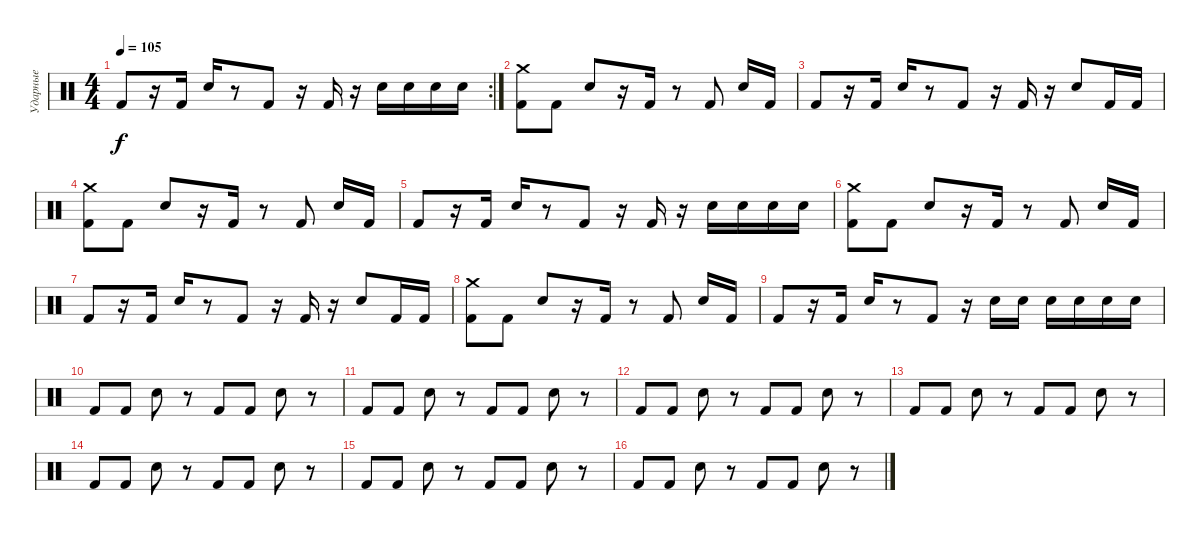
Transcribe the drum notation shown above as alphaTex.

\track ("Ударные" "Ударные") {instrument percussion}
\staff {score}
\articulation defaults
\rc 2
\ts (4 4)
\tempo 105
\clef neutral
\ks c "Kick (hit) 2".8{dy f}
r.16 "Kick (hit) 2".16 "Electric Snare (hit)".16 r.8 "Kick (hit) 2".8 r.16 "Kick (hit) 2".16 r.16 "Electric Snare (hit)".16 "Electric Snare (hit)".16 "Electric Snare (hit)".16 "Electric Snare (hit)".16 |
("Crash medium (hit)" "Kick (hit) 2").8 "Kick (hit) 2".8 "Electric Snare (hit)".8 r.16 "Kick (hit) 2".16 r.8 "Kick (hit) 2".8 "Electric Snare (hit)".16 "Kick (hit) 2".16 |
"Kick (hit) 2".8 r.16 "Kick (hit) 2".16 "Electric Snare (hit)".16 r.8 "Kick (hit) 2".8 r.16 "Kick (hit) 2".16 r.16 "Electric Snare (hit)".8 "Kick (hit) 2".16 "Kick (hit) 2".16 |
("Crash medium (hit)" "Kick (hit) 2").8 "Kick (hit) 2".8 "Electric Snare (hit)".8 r.16 "Kick (hit) 2".16 r.8 "Kick (hit) 2".8 "Electric Snare (hit)".16 "Kick (hit) 2".16 |
"Kick (hit) 2".8 r.16 "Kick (hit) 2".16 "Electric Snare (hit)".16 r.8 "Kick (hit) 2".8 r.16 "Kick (hit) 2".16 r.16 "Electric Snare (hit)".16 "Electric Snare (hit)".16 "Electric Snare (hit)".16 "Electric Snare (hit)".16 |
("Crash medium (hit)" "Kick (hit) 2").8 "Kick (hit) 2".8 "Electric Snare (hit)".8 r.16 "Kick (hit) 2".16 r.8 "Kick (hit) 2".8 "Electric Snare (hit)".16 "Kick (hit) 2".16 |
"Kick (hit) 2".8 r.16 "Kick (hit) 2".16 "Electric Snare (hit)".16 r.8 "Kick (hit) 2".8 r.16 "Kick (hit) 2".16 r.16 "Electric Snare (hit)".8 "Kick (hit) 2".16 "Kick (hit) 2".16 |
("Crash medium (hit)" "Kick (hit) 2").8 "Kick (hit) 2".8 "Electric Snare (hit)".8 r.16 "Kick (hit) 2".16 r.8 "Kick (hit) 2".8 "Electric Snare (hit)".16 "Kick (hit) 2".16 |
"Kick (hit) 2".8 r.16 "Kick (hit) 2".16 "Electric Snare (hit)".16 r.8 "Kick (hit) 2".8 r.16 "Electric Snare (hit)".16 "Electric Snare (hit)".16 "Electric Snare (hit)".16 "Electric Snare (hit)".16 "Electric Snare (hit)".16 "Electric Snare (hit)".16 |
"Kick (hit) 2".8 "Kick (hit) 2".8 "Electric Snare (hit)".8 r.8 "Kick (hit) 2".8 "Kick (hit) 2".8 "Electric Snare (hit)".8 r.8 |
"Kick (hit) 2".8 "Kick (hit) 2".8 "Electric Snare (hit)".8 r.8 "Kick (hit) 2".8 "Kick (hit) 2".8 "Electric Snare (hit)".8 r.8 |
"Kick (hit) 2".8 "Kick (hit) 2".8 "Electric Snare (hit)".8 r.8 "Kick (hit) 2".8 "Kick (hit) 2".8 "Electric Snare (hit)".8 r.8 |
"Kick (hit) 2".8 "Kick (hit) 2".8 "Electric Snare (hit)".8 r.8 "Kick (hit) 2".8 "Kick (hit) 2".8 "Electric Snare (hit)".8 r.8 |
"Kick (hit) 2".8 "Kick (hit) 2".8 "Electric Snare (hit)".8 r.8 "Kick (hit) 2".8 "Kick (hit) 2".8 "Electric Snare (hit)".8 r.8 |
"Kick (hit) 2".8 "Kick (hit) 2".8 "Electric Snare (hit)".8 r.8 "Kick (hit) 2".8 "Kick (hit) 2".8 "Electric Snare (hit)".8 r.8 |
"Kick (hit) 2".8 "Kick (hit) 2".8 "Electric Snare (hit)".8 r.8 "Kick (hit) 2".8 "Kick (hit) 2".8 "Electric Snare (hit)".8 r.8
